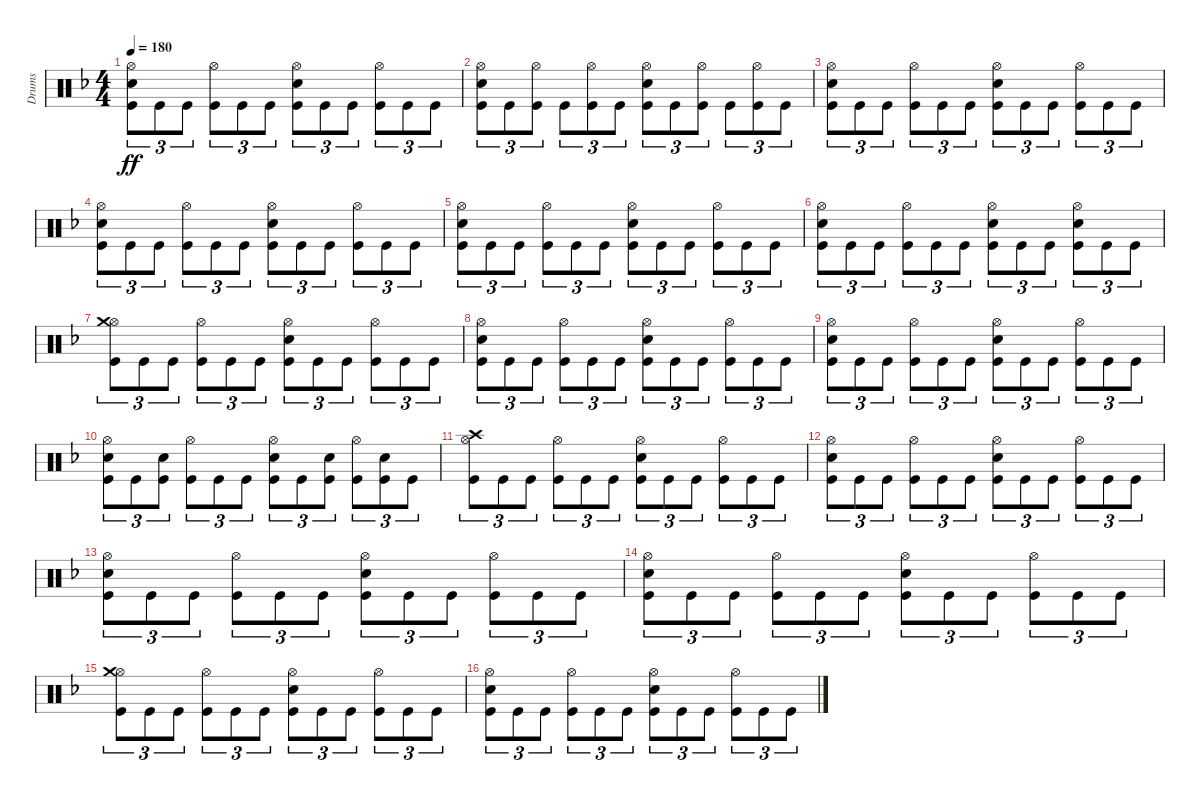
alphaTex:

\track ("Drums" "Drums") {instrument percussion}
\staff {score}
\articulation defaults
\ts (4 4)
\tempo 180
\clef neutral
\ks dminor
("Hi-Hat (open)" "Snare (hit) 2" "Kick (hit)").8{tu (3 2) dy ff} "Kick (hit)".8{tu (3 2)} "Kick (hit)".8{tu (3 2)} ("Hi-Hat (open)" "Kick (hit)").8{tu (3 2)} "Kick (hit)".8{tu (3 2)} "Kick (hit)".8{tu (3 2)} ("Hi-Hat (open)" "Snare (hit) 2" "Kick (hit)").8{tu (3 2)} "Kick (hit)".8{tu (3 2)} "Kick (hit)".8{tu (3 2)} ("Hi-Hat (open)" "Kick (hit)").8{tu (3 2)} "Kick (hit)".8{tu (3 2)} "Kick (hit)".8{tu (3 2)} |
("Hi-Hat (open)" "Snare (hit) 2" "Kick (hit)").8{tu (3 2)} "Kick (hit)".8{tu (3 2)} ("Hi-Hat (open)" "Kick (hit)").8{tu (3 2)} "Kick (hit)".8{tu (3 2)} ("Hi-Hat (open)" "Kick (hit)").8{tu (3 2)} "Kick (hit)".8{tu (3 2)} ("Hi-Hat (open)" "Snare (hit) 2" "Kick (hit)").8{tu (3 2)} "Kick (hit)".8{tu (3 2)} ("Hi-Hat (open)" "Kick (hit)").8{tu (3 2)} "Kick (hit)".8{tu (3 2)} ("Hi-Hat (open)" "Kick (hit)").8{tu (3 2)} "Kick (hit)".8{tu (3 2)} |
("Hi-Hat (open)" "Snare (hit) 2" "Kick (hit)").8{tu (3 2)} "Kick (hit)".8{tu (3 2)} "Kick (hit)".8{tu (3 2)} ("Hi-Hat (open)" "Kick (hit)").8{tu (3 2)} "Kick (hit)".8{tu (3 2)} "Kick (hit)".8{tu (3 2)} ("Hi-Hat (open)" "Snare (hit) 2" "Kick (hit)").8{tu (3 2)} "Kick (hit)".8{tu (3 2)} "Kick (hit)".8{tu (3 2)} ("Hi-Hat (open)" "Kick (hit)").8{tu (3 2)} "Kick (hit)".8{tu (3 2)} "Kick (hit)".8{tu (3 2)} |
("Hi-Hat (open)" "Snare (hit) 2" "Kick (hit)").8{tu (3 2)} "Kick (hit)".8{tu (3 2)} "Kick (hit)".8{tu (3 2)} ("Hi-Hat (open)" "Kick (hit)").8{tu (3 2)} "Kick (hit)".8{tu (3 2)} "Kick (hit)".8{tu (3 2)} ("Hi-Hat (open)" "Snare (hit) 2" "Kick (hit)").8{tu (3 2)} "Kick (hit)".8{tu (3 2)} "Kick (hit)".8{tu (3 2)} ("Hi-Hat (open)" "Kick (hit)").8{tu (3 2)} "Kick (hit)".8{tu (3 2)} "Kick (hit)".8{tu (3 2)} |
("Hi-Hat (open)" "Snare (hit) 2" "Kick (hit)").8{tu (3 2)} "Kick (hit)".8{tu (3 2)} "Kick (hit)".8{tu (3 2)} ("Hi-Hat (open)" "Kick (hit)").8{tu (3 2)} "Kick (hit)".8{tu (3 2)} "Kick (hit)".8{tu (3 2)} ("Hi-Hat (open)" "Snare (hit) 2" "Kick (hit)").8{tu (3 2)} "Kick (hit)".8{tu (3 2)} "Kick (hit)".8{tu (3 2)} ("Hi-Hat (open)" "Kick (hit)").8{tu (3 2)} "Kick (hit)".8{tu (3 2)} "Kick (hit)".8{tu (3 2)} |
("Hi-Hat (open)" "Snare (hit) 2" "Kick (hit)").8{tu (3 2)} "Kick (hit)".8{tu (3 2)} "Kick (hit)".8{tu (3 2)} ("Hi-Hat (open)" "Kick (hit)").8{tu (3 2)} "Kick (hit)".8{tu (3 2)} "Kick (hit)".8{tu (3 2)} ("Hi-Hat (open)" "Snare (hit) 2" "Kick (hit)").8{tu (3 2)} "Kick (hit)".8{tu (3 2)} "Kick (hit)".8{tu (3 2)} ("Hi-Hat (open)" "Snare (hit) 2" "Kick (hit)").8{tu (3 2)} "Kick (hit)".8{tu (3 2)} "Kick (hit)".8{tu (3 2)} |
("Hi-Hat (open)" "Crash medium (hit)" "Kick (hit)").8{tu (3 2)} "Kick (hit)".8{tu (3 2)} "Kick (hit)".8{tu (3 2)} ("Hi-Hat (open)" "Kick (hit)").8{tu (3 2)} "Kick (hit)".8{tu (3 2)} "Kick (hit)".8{tu (3 2)} ("Hi-Hat (open)" "Snare (hit) 2" "Kick (hit)").8{tu (3 2)} "Kick (hit)".8{tu (3 2)} "Kick (hit)".8{tu (3 2)} ("Hi-Hat (open)" "Kick (hit)").8{tu (3 2)} "Kick (hit)".8{tu (3 2)} "Kick (hit)".8{tu (3 2)} |
("Hi-Hat (open)" "Snare (hit) 2" "Kick (hit)").8{tu (3 2)} "Kick (hit)".8{tu (3 2)} "Kick (hit)".8{tu (3 2)} ("Hi-Hat (open)" "Kick (hit)").8{tu (3 2)} "Kick (hit)".8{tu (3 2)} "Kick (hit)".8{tu (3 2)} ("Hi-Hat (open)" "Snare (hit) 2" "Kick (hit)").8{tu (3 2)} "Kick (hit)".8{tu (3 2)} "Kick (hit)".8{tu (3 2)} ("Hi-Hat (open)" "Kick (hit)").8{tu (3 2)} "Kick (hit)".8{tu (3 2)} "Kick (hit)".8{tu (3 2)} |
("Hi-Hat (open)" "Snare (hit) 2" "Kick (hit)").8{tu (3 2)} "Kick (hit)".8{tu (3 2)} "Kick (hit)".8{tu (3 2)} ("Hi-Hat (open)" "Kick (hit)").8{tu (3 2)} "Kick (hit)".8{tu (3 2)} "Kick (hit)".8{tu (3 2)} ("Hi-Hat (open)" "Snare (hit) 2" "Kick (hit)").8{tu (3 2)} "Kick (hit)".8{tu (3 2)} "Kick (hit)".8{tu (3 2)} ("Hi-Hat (open)" "Kick (hit)").8{tu (3 2)} "Kick (hit)".8{tu (3 2)} "Kick (hit)".8{tu (3 2)} |
("Hi-Hat (open)" "Snare (hit) 2" "Kick (hit)").8{tu (3 2)} "Kick (hit)".8{tu (3 2)} ("Snare (hit) 2" "Kick (hit)").8{tu (3 2)} ("Hi-Hat (open)" "Kick (hit)").8{tu (3 2)} "Kick (hit)".8{tu (3 2)} "Kick (hit)".8{tu (3 2)} ("Hi-Hat (open)" "Snare (hit) 2" "Kick (hit)").8{tu (3 2)} "Kick (hit)".8{tu (3 2)} ("Snare (hit) 2" "Kick (hit)").8{tu (3 2)} ("Hi-Hat (open)" "Kick (hit)").8{tu (3 2)} ("Snare (hit) 2" "Kick (hit)").8{tu (3 2)} "Kick (hit)".8{tu (3 2)} |
("Hi-Hat (open)" "Crash high (hit)" "Kick (hit)").8{tu (3 2)} "Kick (hit)".8{tu (3 2)} "Kick (hit)".8{tu (3 2)} ("Hi-Hat (open)" "Kick (hit)").8{tu (3 2)} "Kick (hit)".8{tu (3 2)} "Kick (hit)".8{tu (3 2)} ("Hi-Hat (open)" "Snare (hit) 2" "Kick (hit)").8{tu (3 2)} "Kick (hit)".8{tu (3 2)} "Kick (hit)".8{tu (3 2)} ("Hi-Hat (open)" "Kick (hit)").8{tu (3 2)} "Kick (hit)".8{tu (3 2)} "Kick (hit)".8{tu (3 2)} |
("Hi-Hat (open)" "Snare (hit) 2" "Kick (hit)").8{tu (3 2)} "Kick (hit)".8{tu (3 2)} "Kick (hit)".8{tu (3 2)} ("Hi-Hat (open)" "Kick (hit)").8{tu (3 2)} "Kick (hit)".8{tu (3 2)} "Kick (hit)".8{tu (3 2)} ("Hi-Hat (open)" "Snare (hit) 2" "Kick (hit)").8{tu (3 2)} "Kick (hit)".8{tu (3 2)} "Kick (hit)".8{tu (3 2)} ("Hi-Hat (open)" "Kick (hit)").8{tu (3 2)} "Kick (hit)".8{tu (3 2)} "Kick (hit)".8{tu (3 2)} |
("Hi-Hat (open)" "Snare (hit) 2" "Kick (hit)").8{tu (3 2)} "Kick (hit)".8{tu (3 2)} "Kick (hit)".8{tu (3 2)} ("Hi-Hat (open)" "Kick (hit)").8{tu (3 2)} "Kick (hit)".8{tu (3 2)} "Kick (hit)".8{tu (3 2)} ("Hi-Hat (open)" "Snare (hit) 2" "Kick (hit)").8{tu (3 2)} "Kick (hit)".8{tu (3 2)} "Kick (hit)".8{tu (3 2)} ("Hi-Hat (open)" "Kick (hit)").8{tu (3 2)} "Kick (hit)".8{tu (3 2)} "Kick (hit)".8{tu (3 2)} |
("Hi-Hat (open)" "Snare (hit) 2" "Kick (hit)").8{tu (3 2)} "Kick (hit)".8{tu (3 2)} "Kick (hit)".8{tu (3 2)} ("Hi-Hat (open)" "Kick (hit)").8{tu (3 2)} "Kick (hit)".8{tu (3 2)} "Kick (hit)".8{tu (3 2)} ("Hi-Hat (open)" "Snare (hit) 2" "Kick (hit)").8{tu (3 2)} "Kick (hit)".8{tu (3 2)} "Kick (hit)".8{tu (3 2)} ("Hi-Hat (open)" "Kick (hit)").8{tu (3 2)} "Kick (hit)".8{tu (3 2)} "Kick (hit)".8{tu (3 2)} |
("Hi-Hat (open)" "Crash medium (hit)" "Kick (hit)").8{tu (3 2)} "Kick (hit)".8{tu (3 2)} "Kick (hit)".8{tu (3 2)} ("Hi-Hat (open)" "Kick (hit)").8{tu (3 2)} "Kick (hit)".8{tu (3 2)} "Kick (hit)".8{tu (3 2)} ("Hi-Hat (open)" "Snare (hit) 2" "Kick (hit)").8{tu (3 2)} "Kick (hit)".8{tu (3 2)} "Kick (hit)".8{tu (3 2)} ("Hi-Hat (open)" "Kick (hit)").8{tu (3 2)} "Kick (hit)".8{tu (3 2)} "Kick (hit)".8{tu (3 2)} |
("Hi-Hat (open)" "Snare (hit) 2" "Kick (hit)").8{tu (3 2)} "Kick (hit)".8{tu (3 2)} "Kick (hit)".8{tu (3 2)} ("Hi-Hat (open)" "Kick (hit)").8{tu (3 2)} "Kick (hit)".8{tu (3 2)} "Kick (hit)".8{tu (3 2)} ("Hi-Hat (open)" "Snare (hit) 2" "Kick (hit)").8{tu (3 2)} "Kick (hit)".8{tu (3 2)} "Kick (hit)".8{tu (3 2)} ("Hi-Hat (open)" "Kick (hit)").8{tu (3 2)} "Kick (hit)".8{tu (3 2)} "Kick (hit)".8{tu (3 2)}
